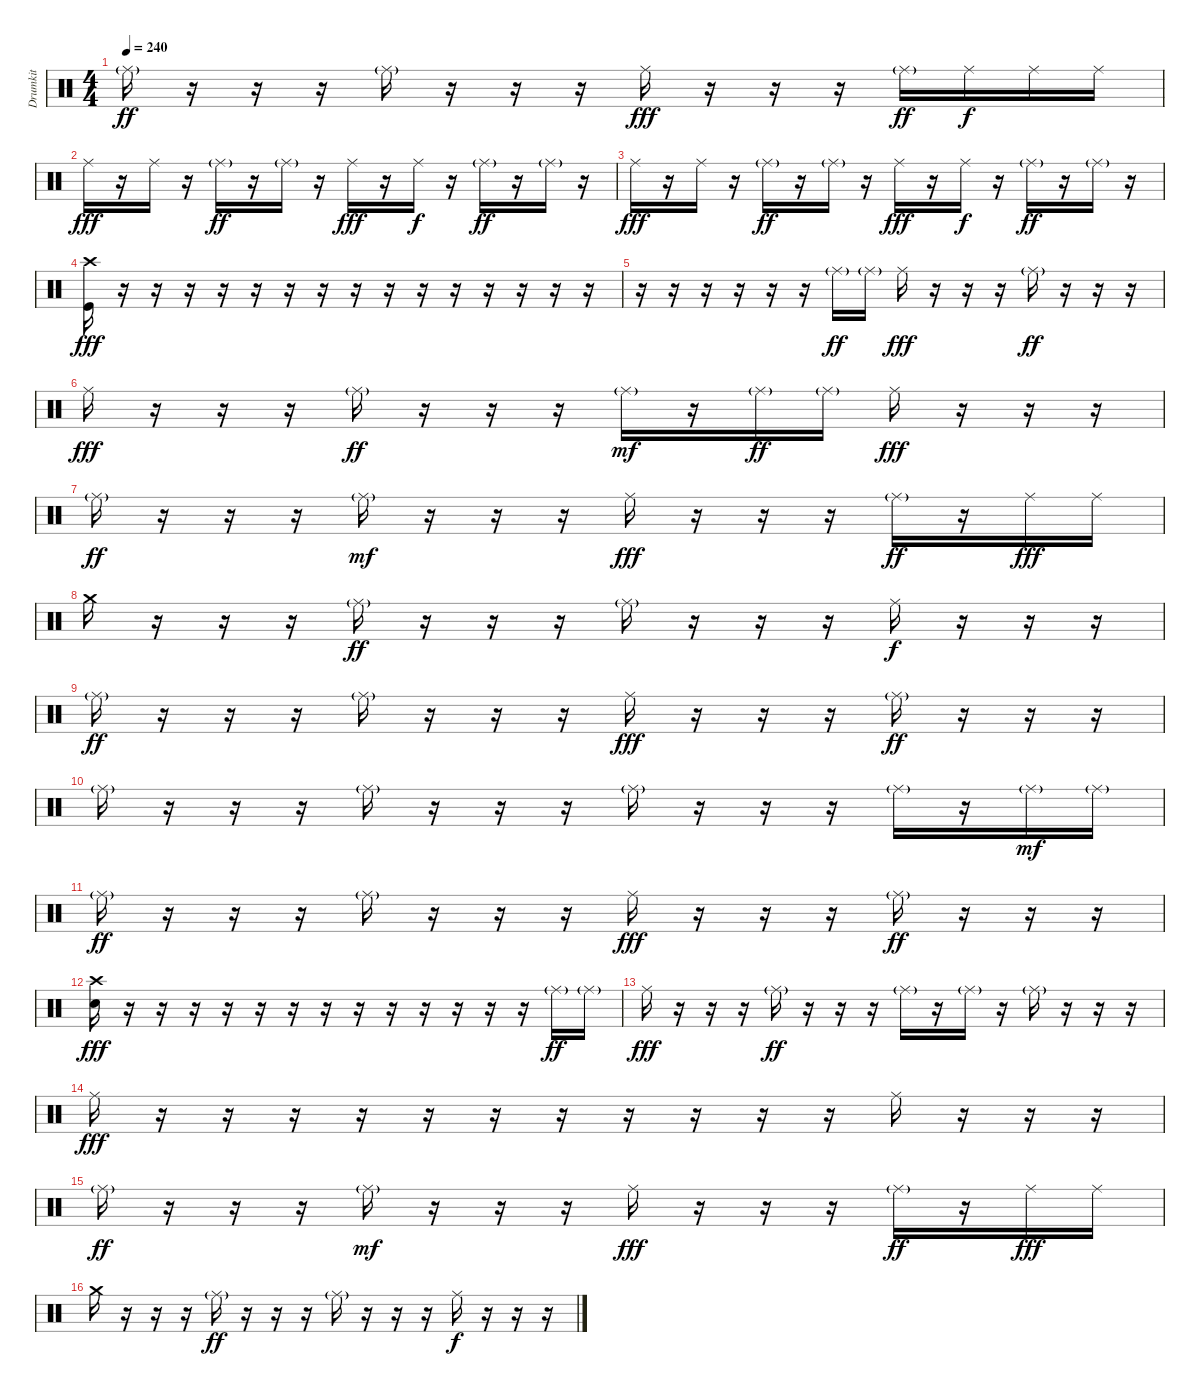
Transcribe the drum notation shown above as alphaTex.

\track ("Drumkit" "Drumkit") {instrument percussion}
\staff {score}
\articulation defaults
\ts (4 4)
\tempo 240
\clef neutral
\ks c "Ride (middle)"{g}.16{dy ff}
r.16 r.16 r.16 "Ride (middle)"{g}.16 r.16 r.16 r.16 "Ride (middle)".16{dy fff} r.16 r.16 r.16 "Ride (middle)"{g}.16{dy ff} "Ride (middle)".16{dy f} "Ride (middle)".16 "Ride (middle)".16 |
"Ride (middle)".16{dy fff} r.16 "Ride (middle)".16 r.16 "Ride (middle)"{g}.16{dy ff} r.16 "Ride (middle)"{g}.16 r.16 "Ride (middle)".16{dy fff} r.16 "Ride (middle)".16{dy f} r.16 "Ride (middle)"{g}.16{dy ff} r.16 "Ride (middle)"{g}.16 r.16 |
"Ride (middle)".16{dy fff} r.16 "Ride (middle)".16 r.16 "Ride (middle)"{g}.16{dy ff} r.16 "Ride (middle)"{g}.16 r.16 "Ride (middle)".16{dy fff} r.16 "Ride (middle)".16{dy f} r.16 "Ride (middle)"{g}.16{dy ff} r.16 "Ride (middle)"{g}.16 r.16 |
("Crash high (hit)" "Kick (hit)").16{dy fff} r.16 r.16 r.16 r.16 r.16 r.16 r.16 r.16 r.16 r.16 r.16 r.16 r.16 r.16 r.16 |
r.16 r.16 r.16 r.16 r.16 r.16 "Ride (middle)"{g}.16{dy ff} "Ride (middle)"{g}.16 "Ride (middle)".16{dy fff} r.16 r.16 r.16 "Ride (middle)"{g}.16{dy ff} r.16 r.16 r.16 |
"Ride (middle)".16{dy fff} r.16 r.16 r.16 "Ride (middle)"{g}.16{dy ff} r.16 r.16 r.16 "Ride (middle)"{g}.16{dy mf} r.16 "Ride (middle)"{g}.16{dy ff} "Ride (middle)"{g}.16 "Ride (middle)".16{dy fff} r.16 r.16 r.16 |
"Ride (middle)"{g}.16{dy ff} r.16 r.16 r.16 "Ride (middle)"{g}.16{dy mf} r.16 r.16 r.16 "Ride (middle)".16{dy fff} r.16 r.16 r.16 "Ride (middle)"{g}.16{dy ff} r.16 "Ride (middle)".16{dy fff} "Ride (middle)".16 |
"Crash medium (hit)".16 r.16 r.16 r.16 "Ride (middle)"{g}.16{dy ff} r.16 r.16 r.16 "Ride (middle)"{g}.16 r.16 r.16 r.16 "Ride (middle)".16{dy f} r.16 r.16 r.16 |
"Ride (middle)"{g}.16{dy ff} r.16 r.16 r.16 "Ride (middle)"{g}.16 r.16 r.16 r.16 "Ride (middle)".16{dy fff} r.16 r.16 r.16 "Ride (middle)"{g}.16{dy ff} r.16 r.16 r.16 |
"Ride (middle)"{g}.16 r.16 r.16 r.16 "Ride (middle)"{g}.16 r.16 r.16 r.16 "Ride (middle)"{g}.16 r.16 r.16 r.16 "Ride (middle)"{g}.16 r.16 "Ride (middle)"{g}.16{dy mf} "Ride (middle)"{g}.16 |
"Ride (middle)"{g}.16{dy ff} r.16 r.16 r.16 "Ride (middle)"{g}.16 r.16 r.16 r.16 "Ride (middle)".16{dy fff} r.16 r.16 r.16 "Ride (middle)"{g}.16{dy ff} r.16 r.16 r.16 |
("Crash high (hit)" "Snare (hit) 2").16{dy fff} r.16 r.16 r.16 r.16 r.16 r.16 r.16 r.16 r.16 r.16 r.16 r.16 r.16 "Ride (middle)"{g}.16{dy ff} "Ride (middle)"{g}.16 |
"Ride (middle)".16{dy fff} r.16 r.16 r.16 "Ride (middle)"{g}.16{dy ff} r.16 r.16 r.16 "Ride (middle)"{g}.16 r.16 "Ride (middle)"{g}.16 r.16 "Ride (middle)"{g}.16 r.16 r.16 r.16 |
"Ride (middle)".16{dy fff} r.16 r.16 r.16 r.16 r.16 r.16 r.16 r.16 r.16 r.16 r.16 "Ride (middle)".16 r.16 r.16 r.16 |
"Ride (middle)"{g}.16{dy ff} r.16 r.16 r.16 "Ride (middle)"{g}.16{dy mf} r.16 r.16 r.16 "Ride (middle)".16{dy fff} r.16 r.16 r.16 "Ride (middle)"{g}.16{dy ff} r.16 "Ride (middle)".16{dy fff} "Ride (middle)".16 |
"Crash medium (hit)".16 r.16 r.16 r.16 "Ride (middle)"{g}.16{dy ff} r.16 r.16 r.16 "Ride (middle)"{g}.16 r.16 r.16 r.16 "Ride (middle)".16{dy f} r.16 r.16 r.16
